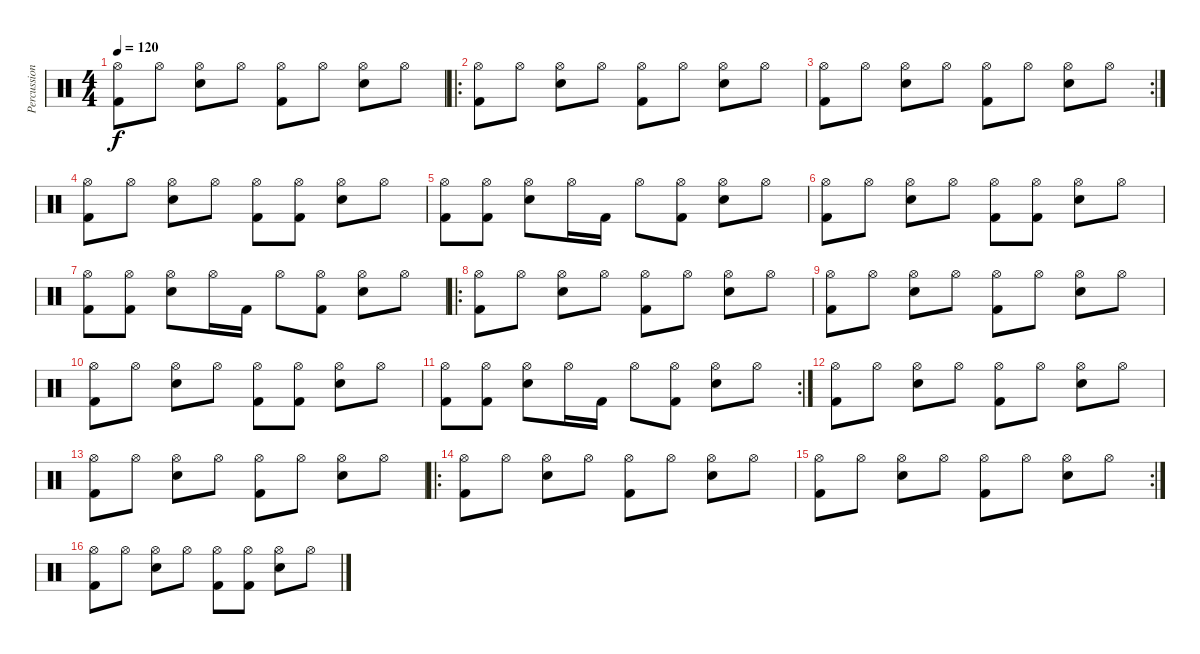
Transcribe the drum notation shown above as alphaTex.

\track ("Percussion" "Percussion") {instrument percussion}
\staff {score}
\articulation defaults
\ts (4 4)
\tempo 120
\clef neutral
\ks c
("Kick (hit) 2" "Hi-Hat (open)").8{dy f} "Hi-Hat (open)".8 ("Snare (hit) 2" "Hi-Hat (open)").8 "Hi-Hat (open)".8 ("Kick (hit) 2" "Hi-Hat (open)").8 "Hi-Hat (open)".8 ("Snare (hit) 2" "Hi-Hat (open)").8 "Hi-Hat (open)".8 |
\ro
("Kick (hit) 2" "Hi-Hat (open)").8 "Hi-Hat (open)".8 ("Snare (hit) 2" "Hi-Hat (open)").8 "Hi-Hat (open)".8 ("Kick (hit) 2" "Hi-Hat (open)").8 "Hi-Hat (open)".8 ("Snare (hit) 2" "Hi-Hat (open)").8 "Hi-Hat (open)".8 |
\rc 2
("Kick (hit) 2" "Hi-Hat (open)").8 "Hi-Hat (open)".8 ("Snare (hit) 2" "Hi-Hat (open)").8 "Hi-Hat (open)".8 ("Kick (hit) 2" "Hi-Hat (open)").8 "Hi-Hat (open)".8 ("Snare (hit) 2" "Hi-Hat (open)").8 "Hi-Hat (open)".8 |
("Kick (hit) 2" "Hi-Hat (open)").8 "Hi-Hat (open)".8 ("Snare (hit) 2" "Hi-Hat (open)").8 "Hi-Hat (open)".8 ("Kick (hit) 2" "Hi-Hat (open)").8 ("Kick (hit) 2" "Hi-Hat (open)").8 ("Snare (hit) 2" "Hi-Hat (open)").8 "Hi-Hat (open)".8 |
("Kick (hit) 2" "Hi-Hat (open)").8 ("Kick (hit) 2" "Hi-Hat (open)").8 ("Snare (hit) 2" "Hi-Hat (open)").8 "Hi-Hat (open)".16 "Kick (hit) 2".16 "Hi-Hat (open)".8 ("Kick (hit) 2" "Hi-Hat (open)").8 ("Snare (hit) 2" "Hi-Hat (open)").8 "Hi-Hat (open)".8 |
("Kick (hit) 2" "Hi-Hat (open)").8 "Hi-Hat (open)".8 ("Snare (hit) 2" "Hi-Hat (open)").8 "Hi-Hat (open)".8 ("Kick (hit) 2" "Hi-Hat (open)").8 ("Kick (hit) 2" "Hi-Hat (open)").8 ("Snare (hit) 2" "Hi-Hat (open)").8 "Hi-Hat (open)".8 |
("Kick (hit) 2" "Hi-Hat (open)").8 ("Kick (hit) 2" "Hi-Hat (open)").8 ("Snare (hit) 2" "Hi-Hat (open)").8 "Hi-Hat (open)".16 "Kick (hit) 2".16 "Hi-Hat (open)".8 ("Kick (hit) 2" "Hi-Hat (open)").8 ("Snare (hit) 2" "Hi-Hat (open)").8 "Hi-Hat (open)".8 |
\ro
("Kick (hit) 2" "Hi-Hat (open)").8 "Hi-Hat (open)".8 ("Snare (hit) 2" "Hi-Hat (open)").8 "Hi-Hat (open)".8 ("Kick (hit) 2" "Hi-Hat (open)").8 "Hi-Hat (open)".8 ("Snare (hit) 2" "Hi-Hat (open)").8 "Hi-Hat (open)".8 |
("Kick (hit) 2" "Hi-Hat (open)").8 "Hi-Hat (open)".8 ("Snare (hit) 2" "Hi-Hat (open)").8 "Hi-Hat (open)".8 ("Kick (hit) 2" "Hi-Hat (open)").8 "Hi-Hat (open)".8 ("Snare (hit) 2" "Hi-Hat (open)").8 "Hi-Hat (open)".8 |
("Kick (hit) 2" "Hi-Hat (open)").8 "Hi-Hat (open)".8 ("Snare (hit) 2" "Hi-Hat (open)").8 "Hi-Hat (open)".8 ("Kick (hit) 2" "Hi-Hat (open)").8 ("Kick (hit) 2" "Hi-Hat (open)").8 ("Snare (hit) 2" "Hi-Hat (open)").8 "Hi-Hat (open)".8 |
\rc 2
("Kick (hit) 2" "Hi-Hat (open)").8 ("Kick (hit) 2" "Hi-Hat (open)").8 ("Snare (hit) 2" "Hi-Hat (open)").8 "Hi-Hat (open)".16 "Kick (hit) 2".16 "Hi-Hat (open)".8 ("Kick (hit) 2" "Hi-Hat (open)").8 ("Snare (hit) 2" "Hi-Hat (open)").8 "Hi-Hat (open)".8 |
("Kick (hit) 2" "Hi-Hat (open)").8 "Hi-Hat (open)".8 ("Snare (hit) 2" "Hi-Hat (open)").8 "Hi-Hat (open)".8 ("Kick (hit) 2" "Hi-Hat (open)").8 "Hi-Hat (open)".8 ("Snare (hit) 2" "Hi-Hat (open)").8 "Hi-Hat (open)".8 |
("Kick (hit) 2" "Hi-Hat (open)").8 "Hi-Hat (open)".8 ("Snare (hit) 2" "Hi-Hat (open)").8 "Hi-Hat (open)".8 ("Kick (hit) 2" "Hi-Hat (open)").8 "Hi-Hat (open)".8 ("Snare (hit) 2" "Hi-Hat (open)").8 "Hi-Hat (open)".8 |
\ro
("Kick (hit) 2" "Hi-Hat (open)").8 "Hi-Hat (open)".8 ("Snare (hit) 2" "Hi-Hat (open)").8 "Hi-Hat (open)".8 ("Kick (hit) 2" "Hi-Hat (open)").8 "Hi-Hat (open)".8 ("Snare (hit) 2" "Hi-Hat (open)").8 "Hi-Hat (open)".8 |
\rc 2
("Kick (hit) 2" "Hi-Hat (open)").8 "Hi-Hat (open)".8 ("Snare (hit) 2" "Hi-Hat (open)").8 "Hi-Hat (open)".8 ("Kick (hit) 2" "Hi-Hat (open)").8 "Hi-Hat (open)".8 ("Snare (hit) 2" "Hi-Hat (open)").8 "Hi-Hat (open)".8 |
("Kick (hit) 2" "Hi-Hat (open)").8 "Hi-Hat (open)".8 ("Snare (hit) 2" "Hi-Hat (open)").8 "Hi-Hat (open)".8 ("Kick (hit) 2" "Hi-Hat (open)").8 ("Kick (hit) 2" "Hi-Hat (open)").8 ("Snare (hit) 2" "Hi-Hat (open)").8 "Hi-Hat (open)".8
